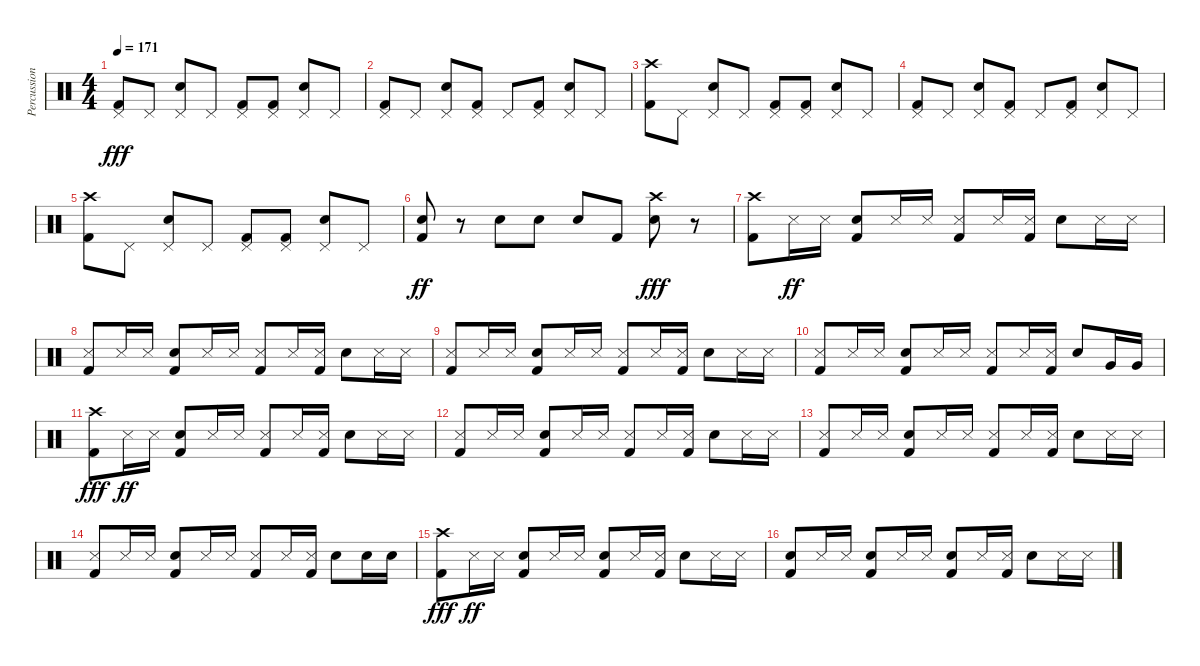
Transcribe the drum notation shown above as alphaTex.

\track ("Percussion" "Percussion") {instrument percussion}
\staff {score}
\articulation defaults
\ts (4 4)
\tempo 171
\clef neutral
\ks c
("Kick (hit) 2" "Pedal Hi-Hat (hit)").8{dy fff} "Pedal Hi-Hat (hit)".8 ("Snare (hit) 2" "Pedal Hi-Hat (hit)").8 "Pedal Hi-Hat (hit)".8 ("Kick (hit) 2" "Pedal Hi-Hat (hit)").8 ("Kick (hit) 2" "Pedal Hi-Hat (hit)").8 ("Snare (hit) 2" "Pedal Hi-Hat (hit)").8 "Pedal Hi-Hat (hit)".8 |
("Kick (hit) 2" "Pedal Hi-Hat (hit)").8 "Pedal Hi-Hat (hit)".8 ("Snare (hit) 2" "Pedal Hi-Hat (hit)").8 ("Kick (hit) 2" "Pedal Hi-Hat (hit)").8 "Pedal Hi-Hat (hit)".8 ("Kick (hit) 2" "Pedal Hi-Hat (hit)").8 ("Snare (hit) 2" "Pedal Hi-Hat (hit)").8 "Pedal Hi-Hat (hit)".8 |
("Kick (hit) 2" "Crash high (hit)").8 "Pedal Hi-Hat (hit)".8 ("Snare (hit) 2" "Pedal Hi-Hat (hit)").8 "Pedal Hi-Hat (hit)".8 ("Kick (hit) 2" "Pedal Hi-Hat (hit)").8 ("Kick (hit) 2" "Pedal Hi-Hat (hit)").8 ("Snare (hit) 2" "Pedal Hi-Hat (hit)").8 "Pedal Hi-Hat (hit)".8 |
("Kick (hit) 2" "Pedal Hi-Hat (hit)").8 "Pedal Hi-Hat (hit)".8 ("Snare (hit) 2" "Pedal Hi-Hat (hit)").8 ("Kick (hit) 2" "Pedal Hi-Hat (hit)").8 "Pedal Hi-Hat (hit)".8 ("Kick (hit) 2" "Pedal Hi-Hat (hit)").8 ("Snare (hit) 2" "Pedal Hi-Hat (hit)").8 "Pedal Hi-Hat (hit)".8 |
("Kick (hit) 2" "Crash high (hit)").8 "Pedal Hi-Hat (hit)".8 ("Snare (hit) 2" "Pedal Hi-Hat (hit)").8 "Pedal Hi-Hat (hit)".8 ("Kick (hit) 2" "Pedal Hi-Hat (hit)").8 ("Kick (hit) 2" "Pedal Hi-Hat (hit)").8 ("Snare (hit) 2" "Pedal Hi-Hat (hit)").8 "Pedal Hi-Hat (hit)".8 |
("Kick (hit) 2" "Snare (hit) 2").8{dy ff} r.8 "Snare (hit) 2".8 "Snare (hit) 2".8 "Snare (hit) 2".8 "Kick (hit) 2".8 ("Snare (hit) 2" "Crash high (hit)").8{dy fff} r.8 |
("Kick (hit) 2" "Crash high (hit)").8 "Metronome (hit)".16{dy ff} "Metronome (hit)".16 ("Kick (hit) 2" "Snare (hit) 2").8 "Metronome (hit)".16 "Metronome (hit)".16 ("Kick (hit) 2" "Metronome (hit)").8 "Metronome (hit)".16 ("Kick (hit) 2" "Metronome (hit)").16 "Snare (hit) 2".8 "Metronome (hit)".16 "Metronome (hit)".16 |
("Kick (hit) 2" "Metronome (hit)").8 "Metronome (hit)".16 "Metronome (hit)".16 ("Kick (hit) 2" "Snare (hit) 2").8 "Metronome (hit)".16 "Metronome (hit)".16 ("Kick (hit) 2" "Metronome (hit)").8 "Metronome (hit)".16 ("Kick (hit) 2" "Metronome (hit)").16 "Snare (hit) 2".8 "Metronome (hit)".16 "Metronome (hit)".16 |
("Kick (hit) 2" "Metronome (hit)").8 "Metronome (hit)".16 "Metronome (hit)".16 ("Kick (hit) 2" "Snare (hit) 2").8 "Metronome (hit)".16 "Metronome (hit)".16 ("Kick (hit) 2" "Metronome (hit)").8 "Metronome (hit)".16 ("Kick (hit) 2" "Metronome (hit)").16 "Snare (hit) 2".8 "Metronome (hit)".16 "Metronome (hit)".16 |
("Kick (hit) 2" "Metronome (hit)").8 "Metronome (hit)".16 "Metronome (hit)".16 ("Kick (hit) 2" "Snare (hit) 2").8 "Metronome (hit)".16 "Metronome (hit)".16 ("Kick (hit) 2" "Metronome (hit)").8 "Metronome (hit)".16 ("Kick (hit) 2" "Metronome (hit)").16 "Snare (hit) 2".8 "Very Low Tom (hit)".16 "Very Low Tom (hit)".16 |
("Kick (hit) 2" "Crash high (hit)").8{dy fff} "Metronome (hit)".16{dy ff} "Metronome (hit)".16 ("Kick (hit) 2" "Snare (hit) 2").8 "Metronome (hit)".16 "Metronome (hit)".16 ("Kick (hit) 2" "Metronome (hit)").8 "Metronome (hit)".16 ("Kick (hit) 2" "Metronome (hit)").16 "Snare (hit) 2".8 "Metronome (hit)".16 "Metronome (hit)".16 |
("Kick (hit) 2" "Metronome (hit)").8 "Metronome (hit)".16 "Metronome (hit)".16 ("Kick (hit) 2" "Snare (hit) 2").8 "Metronome (hit)".16 "Metronome (hit)".16 ("Kick (hit) 2" "Metronome (hit)").8 "Metronome (hit)".16 ("Kick (hit) 2" "Metronome (hit)").16 "Snare (hit) 2".8 "Metronome (hit)".16 "Metronome (hit)".16 |
("Kick (hit) 2" "Metronome (hit)").8 "Metronome (hit)".16 "Metronome (hit)".16 ("Kick (hit) 2" "Snare (hit) 2").8 "Metronome (hit)".16 "Metronome (hit)".16 ("Kick (hit) 2" "Metronome (hit)").8 "Metronome (hit)".16 ("Kick (hit) 2" "Metronome (hit)").16 "Snare (hit) 2".8 "Metronome (hit)".16 "Metronome (hit)".16 |
("Kick (hit) 2" "Metronome (hit)").8 "Metronome (hit)".16 "Metronome (hit)".16 ("Kick (hit) 2" "Snare (hit) 2").8 "Metronome (hit)".16 "Metronome (hit)".16 ("Kick (hit) 2" "Metronome (hit)").8 "Metronome (hit)".16 ("Kick (hit) 2" "Metronome (hit)").16 "Snare (hit) 2".8 "Snare (hit) 2".16 "Snare (hit) 2".16 |
("Kick (hit) 2" "Crash high (hit)").8{dy fff} "Metronome (hit)".16{dy ff} "Metronome (hit)".16 ("Kick (hit) 2" "Snare (hit) 2").8 "Metronome (hit)".16 "Metronome (hit)".16 ("Kick (hit) 2" "Snare (hit) 2").8 "Metronome (hit)".16 ("Kick (hit) 2" "Metronome (hit)").16 "Snare (hit) 2".8 "Metronome (hit)".16 "Metronome (hit)".16 |
("Kick (hit) 2" "Snare (hit) 2").8 "Metronome (hit)".16 "Metronome (hit)".16 ("Kick (hit) 2" "Snare (hit) 2").8 "Metronome (hit)".16 "Metronome (hit)".16 ("Kick (hit) 2" "Snare (hit) 2").8 "Metronome (hit)".16 ("Kick (hit) 2" "Metronome (hit)").16 "Snare (hit) 2".8 "Metronome (hit)".16 "Metronome (hit)".16
